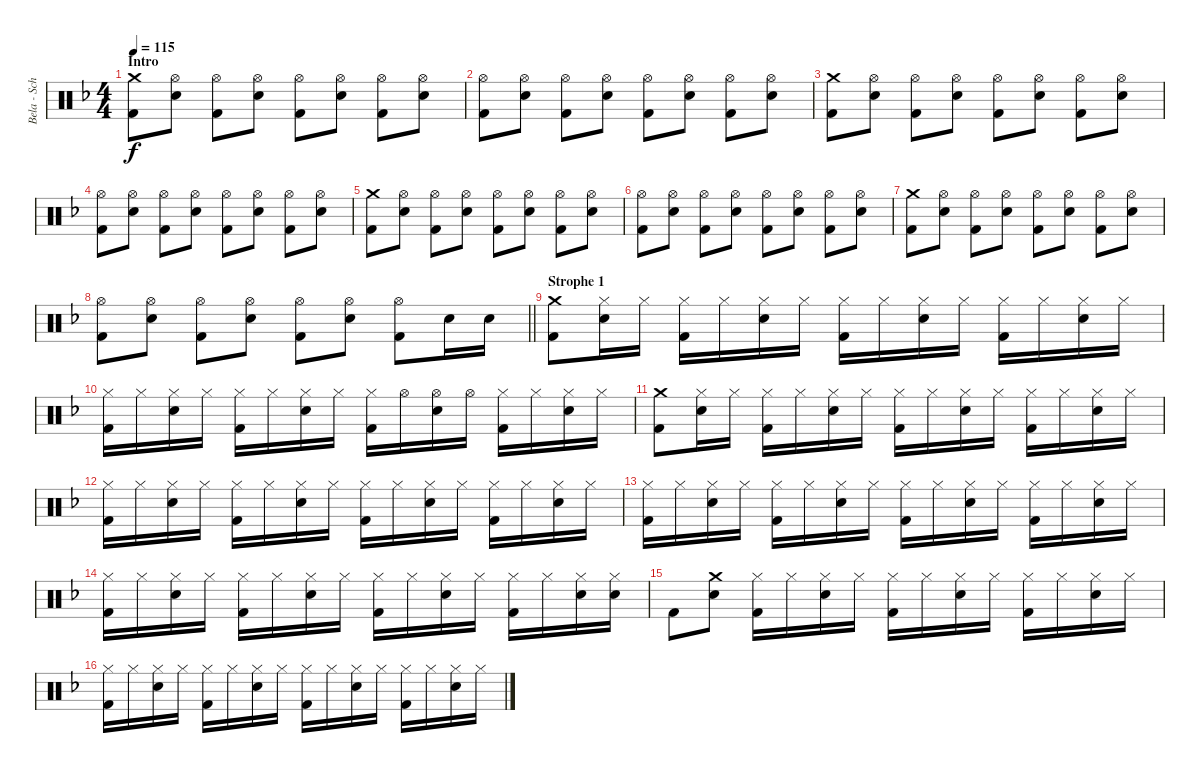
\track ("Bela - Schlagzeug" "Bela - Sch") {instrument percussion}
\staff {score}
\articulation defaults
\ts (4 4)
\section ("" "Intro")
\tempo 115
\clef neutral
\ks f
("Crash medium (hit)" "Kick (hit) 2").8{dy f} ("Hi-Hat (open)" "Snare (hit) 2").8 ("Hi-Hat (open)" "Kick (hit) 2").8 ("Hi-Hat (open)" "Snare (hit) 2").8 ("Hi-Hat (open)" "Kick (hit) 2").8 ("Hi-Hat (open)" "Snare (hit) 2").8 ("Hi-Hat (open)" "Kick (hit) 2").8 ("Hi-Hat (open)" "Snare (hit) 2").8 |
("Hi-Hat (open)" "Kick (hit) 2").8 ("Hi-Hat (open)" "Snare (hit) 2").8 ("Hi-Hat (open)" "Kick (hit) 2").8 ("Hi-Hat (open)" "Snare (hit) 2").8 ("Hi-Hat (open)" "Kick (hit) 2").8 ("Hi-Hat (open)" "Snare (hit) 2").8 ("Hi-Hat (open)" "Kick (hit) 2").8 ("Hi-Hat (open)" "Snare (hit) 2").8 |
("Crash medium (hit)" "Kick (hit) 2").8 ("Hi-Hat (open)" "Snare (hit) 2").8 ("Hi-Hat (open)" "Kick (hit) 2").8 ("Hi-Hat (open)" "Snare (hit) 2").8 ("Hi-Hat (open)" "Kick (hit) 2").8 ("Hi-Hat (open)" "Snare (hit) 2").8 ("Hi-Hat (open)" "Kick (hit) 2").8 ("Hi-Hat (open)" "Snare (hit) 2").8 |
("Hi-Hat (open)" "Kick (hit) 2").8 ("Hi-Hat (open)" "Snare (hit) 2").8 ("Hi-Hat (open)" "Kick (hit) 2").8 ("Hi-Hat (open)" "Snare (hit) 2").8 ("Hi-Hat (open)" "Kick (hit) 2").8 ("Hi-Hat (open)" "Snare (hit) 2").8 ("Hi-Hat (open)" "Kick (hit) 2").8 ("Hi-Hat (open)" "Snare (hit) 2").8 |
("Crash medium (hit)" "Kick (hit) 2").8 ("Hi-Hat (open)" "Snare (hit) 2").8 ("Hi-Hat (open)" "Kick (hit) 2").8 ("Hi-Hat (open)" "Snare (hit) 2").8 ("Hi-Hat (open)" "Kick (hit) 2").8 ("Hi-Hat (open)" "Snare (hit) 2").8 ("Hi-Hat (open)" "Kick (hit) 2").8 ("Hi-Hat (open)" "Snare (hit) 2").8 |
("Hi-Hat (open)" "Kick (hit) 2").8 ("Hi-Hat (open)" "Snare (hit) 2").8 ("Hi-Hat (open)" "Kick (hit) 2").8 ("Hi-Hat (open)" "Snare (hit) 2").8 ("Hi-Hat (open)" "Kick (hit) 2").8 ("Hi-Hat (open)" "Snare (hit) 2").8 ("Hi-Hat (open)" "Kick (hit) 2").8 ("Hi-Hat (open)" "Snare (hit) 2").8 |
("Crash medium (hit)" "Kick (hit) 2").8 ("Hi-Hat (open)" "Snare (hit) 2").8 ("Hi-Hat (open)" "Kick (hit) 2").8 ("Hi-Hat (open)" "Snare (hit) 2").8 ("Hi-Hat (open)" "Kick (hit) 2").8 ("Hi-Hat (open)" "Snare (hit) 2").8 ("Hi-Hat (open)" "Kick (hit) 2").8 ("Hi-Hat (open)" "Snare (hit) 2").8 |
\barLineRight lightlight
("Hi-Hat (open)" "Kick (hit) 2").8 ("Hi-Hat (open)" "Snare (hit) 2").8 ("Hi-Hat (open)" "Kick (hit) 2").8 ("Hi-Hat (open)" "Snare (hit) 2").8 ("Hi-Hat (open)" "Kick (hit) 2").8 ("Hi-Hat (open)" "Snare (hit) 2").8 ("Hi-Hat (open)" "Kick (hit) 2").8 "Snare (hit) 2".16 "Snare (hit) 2".16 |
\section ("" "Strophe 1")
("Crash medium (hit)" "Kick (hit) 2").8 ("Hi-Hat (closed)" "Snare (hit) 2").16 "Hi-Hat (closed)".16 ("Hi-Hat (closed)" "Kick (hit) 2").16 "Hi-Hat (closed)".16 ("Hi-Hat (closed)" "Snare (hit) 2").16 "Hi-Hat (closed)".16 ("Hi-Hat (closed)" "Kick (hit) 2").16 "Hi-Hat (closed)".16 ("Hi-Hat (closed)" "Snare (hit) 2").16 "Hi-Hat (closed)".16 ("Hi-Hat (closed)" "Kick (hit) 2").16 "Hi-Hat (closed)".16 ("Hi-Hat (closed)" "Snare (hit) 2").16 "Hi-Hat (closed)".16 |
("Hi-Hat (closed)" "Kick (hit) 2").16 "Hi-Hat (closed)".16 ("Hi-Hat (closed)" "Snare (hit) 2").16 "Hi-Hat (closed)".16 ("Hi-Hat (closed)" "Kick (hit) 2").16 "Hi-Hat (closed)".16 ("Hi-Hat (closed)" "Snare (hit) 2").16 "Hi-Hat (closed)".16 ("Hi-Hat (closed)" "Kick (hit) 2").16 "Hi-Hat (open)".16 ("Hi-Hat (open)" "Snare (hit) 2").16 "Hi-Hat (open)".16 ("Hi-Hat (closed)" "Kick (hit) 2").16 "Hi-Hat (closed)".16 ("Hi-Hat (closed)" "Snare (hit) 2").16 "Hi-Hat (closed)".16 |
("Crash medium (hit)" "Kick (hit) 2").8 ("Hi-Hat (closed)" "Snare (hit) 2").16 "Hi-Hat (closed)".16 ("Hi-Hat (closed)" "Kick (hit) 2").16 "Hi-Hat (closed)".16 ("Hi-Hat (closed)" "Snare (hit) 2").16 "Hi-Hat (closed)".16 ("Hi-Hat (closed)" "Kick (hit) 2").16 "Hi-Hat (closed)".16 ("Hi-Hat (closed)" "Snare (hit) 2").16 "Hi-Hat (closed)".16 ("Hi-Hat (closed)" "Kick (hit) 2").16 "Hi-Hat (closed)".16 ("Hi-Hat (closed)" "Snare (hit) 2").16 "Hi-Hat (closed)".16 |
("Hi-Hat (closed)" "Kick (hit) 2").16 "Hi-Hat (closed)".16 ("Hi-Hat (closed)" "Snare (hit) 2").16 "Hi-Hat (closed)".16 ("Hi-Hat (closed)" "Kick (hit) 2").16 "Hi-Hat (closed)".16 ("Hi-Hat (closed)" "Snare (hit) 2").16 "Hi-Hat (closed)".16 ("Hi-Hat (closed)" "Kick (hit) 2").16 "Hi-Hat (closed)".16 ("Hi-Hat (closed)" "Snare (hit) 2").16 "Hi-Hat (closed)".16 ("Hi-Hat (closed)" "Kick (hit) 2").16 "Hi-Hat (closed)".16 ("Hi-Hat (closed)" "Snare (hit) 2").16 "Hi-Hat (closed)".16 |
("Hi-Hat (closed)" "Kick (hit) 2").16 "Hi-Hat (closed)".16 ("Hi-Hat (closed)" "Snare (hit) 2").16 "Hi-Hat (closed)".16 ("Hi-Hat (closed)" "Kick (hit) 2").16 "Hi-Hat (closed)".16 ("Hi-Hat (closed)" "Snare (hit) 2").16 "Hi-Hat (closed)".16 ("Hi-Hat (closed)" "Kick (hit) 2").16 "Hi-Hat (closed)".16 ("Hi-Hat (closed)" "Snare (hit) 2").16 "Hi-Hat (closed)".16 ("Hi-Hat (closed)" "Kick (hit) 2").16 "Hi-Hat (closed)".16 ("Hi-Hat (closed)" "Snare (hit) 2").16 "Hi-Hat (closed)".16 |
("Hi-Hat (closed)" "Kick (hit) 2").16 "Hi-Hat (closed)".16 ("Hi-Hat (closed)" "Snare (hit) 2").16 "Hi-Hat (closed)".16 ("Hi-Hat (closed)" "Kick (hit) 2").16 "Hi-Hat (closed)".16 ("Hi-Hat (closed)" "Snare (hit) 2").16 "Hi-Hat (closed)".16 ("Hi-Hat (closed)" "Kick (hit) 2").16 "Hi-Hat (closed)".16 ("Hi-Hat (closed)" "Snare (hit) 2").16 "Hi-Hat (closed)".16 ("Hi-Hat (closed)" "Kick (hit) 2").16 "Hi-Hat (closed)".16 ("Hi-Hat (closed)" "Snare (hit) 2").16 ("Hi-Hat (closed)" "Snare (hit) 2").16 |
"Kick (hit) 2".8 ("Crash medium (hit)" "Snare (hit) 2").8 ("Hi-Hat (closed)" "Kick (hit) 2").16 "Hi-Hat (closed)".16 ("Hi-Hat (closed)" "Snare (hit) 2").16 "Hi-Hat (closed)".16 ("Hi-Hat (closed)" "Kick (hit) 2").16 "Hi-Hat (closed)".16 ("Hi-Hat (closed)" "Snare (hit) 2").16 "Hi-Hat (closed)".16 ("Hi-Hat (closed)" "Kick (hit) 2").16 "Hi-Hat (closed)".16 ("Hi-Hat (closed)" "Snare (hit) 2").16 "Hi-Hat (closed)".16 |
("Hi-Hat (closed)" "Kick (hit) 2").16 "Hi-Hat (closed)".16 ("Hi-Hat (closed)" "Snare (hit) 2").16 "Hi-Hat (closed)".16 ("Hi-Hat (closed)" "Kick (hit) 2").16 "Hi-Hat (closed)".16 ("Hi-Hat (closed)" "Snare (hit) 2").16 "Hi-Hat (closed)".16 ("Hi-Hat (closed)" "Kick (hit) 2").16 "Hi-Hat (closed)".16 ("Hi-Hat (closed)" "Snare (hit) 2").16 "Hi-Hat (closed)".16 ("Hi-Hat (closed)" "Kick (hit) 2").16 "Hi-Hat (closed)".16 ("Hi-Hat (closed)" "Snare (hit) 2").16 "Hi-Hat (closed)".16
